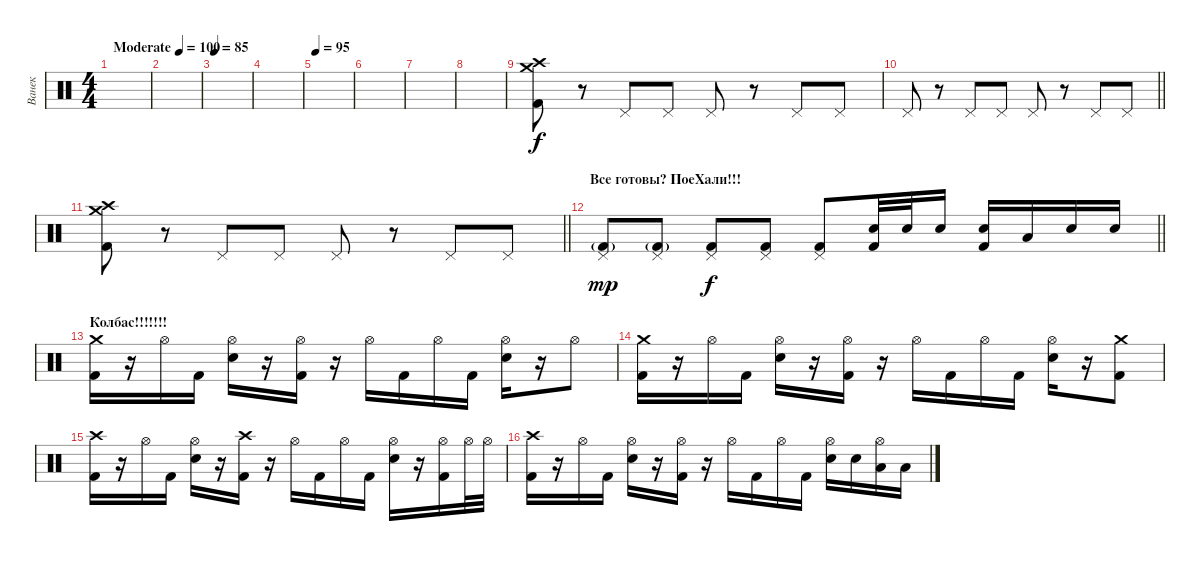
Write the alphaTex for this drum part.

\track ("Ванек" "Ванек") {instrument percussion}
\staff {score}
\articulation defaults
\ts (4 4)
\tempo (100 "Moderate")
\tempo 85
\tempo (100 "Moderate")
\clef neutral
\ks c
|
|
\tempo 85
|
|
\tempo 95
|
|
|
|
("Crash high (hit)" "Crash medium (hit)" "Kick (hit) 2").8 r.8 "Pedal Hi-Hat (hit)".8 "Pedal Hi-Hat (hit)".8 "Pedal Hi-Hat (hit)".8 r.8 "Pedal Hi-Hat (hit)".8 "Pedal Hi-Hat (hit)".8 |
\barLineRight lightlight "Pedal Hi-Hat (hit)".8
r.8 "Pedal Hi-Hat (hit)".8 "Pedal Hi-Hat (hit)".8 "Pedal Hi-Hat (hit)".8 r.8 "Pedal Hi-Hat (hit)".8 "Pedal Hi-Hat (hit)".8 |
\barLineRight lightlight
("Crash high (hit)" "Crash medium (hit)" "Kick (hit) 2").8 r.8 "Pedal Hi-Hat (hit)".8 "Pedal Hi-Hat (hit)".8 "Pedal Hi-Hat (hit)".8 r.8 "Pedal Hi-Hat (hit)".8 "Pedal Hi-Hat (hit)".8 |
\section ("" "Все готовы? ПоеХали!!!")
\barLineRight lightlight
("Pedal Hi-Hat (hit)" "Kick (hit) 2"{g}).8{dy mp} ("Pedal Hi-Hat (hit)" "Kick (hit) 2"{g}).8 ("Pedal Hi-Hat (hit)" "Kick (hit) 2").8{dy f} ("Pedal Hi-Hat (hit)" "Kick (hit) 2").8 ("Pedal Hi-Hat (hit)" "Kick (hit) 2").8 ("Snare (hit) 2" "Kick (hit) 2").32 "Snare (hit) 2".32 "Snare (hit) 2".16 ("Snare (hit) 2" "Kick (hit) 2").16 "Low Floor Tom (hit)".16 "Snare (hit) 2".16 "Snare (hit) 2".16 |
\section ("" "Колбас!!!!!!!")
("Crash medium (hit)" "Kick (hit) 2").16 r.16 "Hi-Hat (open)".16 "Kick (hit) 2".16 ("Hi-Hat (open)" "Snare (hit) 2").16 r.16 ("Hi-Hat (open)" "Kick (hit) 2").16 r.16 "Hi-Hat (open)".16 "Kick (hit) 2".16 "Hi-Hat (open)".16 "Kick (hit) 2".16 ("Hi-Hat (open)" "Snare (hit) 2").16 r.16 "Hi-Hat (open)".8 |
("Crash medium (hit)" "Kick (hit) 2").16 r.16 "Hi-Hat (open)".16 "Kick (hit) 2".16 ("Hi-Hat (open)" "Snare (hit) 2").16 r.16 ("Hi-Hat (open)" "Kick (hit) 2").16 r.16 "Hi-Hat (open)".16 "Kick (hit) 2".16 "Hi-Hat (open)".16 "Kick (hit) 2".16 ("Hi-Hat (open)" "Snare (hit) 2").16 r.16 ("Crash medium (hit)" "Kick (hit) 2").8 |
("Crash high (hit)" "Kick (hit) 2").16 r.16 "Hi-Hat (open)".16 "Kick (hit) 2".16 ("Hi-Hat (open)" "Snare (hit) 2").16 r.16 ("Crash high (hit)" "Kick (hit) 2").16 r.16 "Hi-Hat (open)".16 "Kick (hit) 2".16 "Hi-Hat (open)".16 "Kick (hit) 2".16 ("Hi-Hat (open)" "Snare (hit) 2").16 r.16 ("Hi-Hat (open)" "Kick (hit) 2").16 "Hi-Hat (open)".32 "Hi-Hat (open)".32 |
("Crash high (hit)" "Kick (hit) 2").16 r.16 "Hi-Hat (open)".16 "Kick (hit) 2".16 ("Hi-Hat (open)" "Snare (hit) 2").16 r.16 ("Hi-Hat (open)" "Kick (hit) 2").16 r.16 "Hi-Hat (open)".16 "Kick (hit) 2".16 "Hi-Hat (open)".16 "Kick (hit) 2".16 ("Hi-Hat (open)" "Snare (hit) 2").16 "Snare (hit) 2".16 ("Hi-Hat (open)" "Low Floor Tom (hit)").16 "Low Floor Tom (hit)".16
